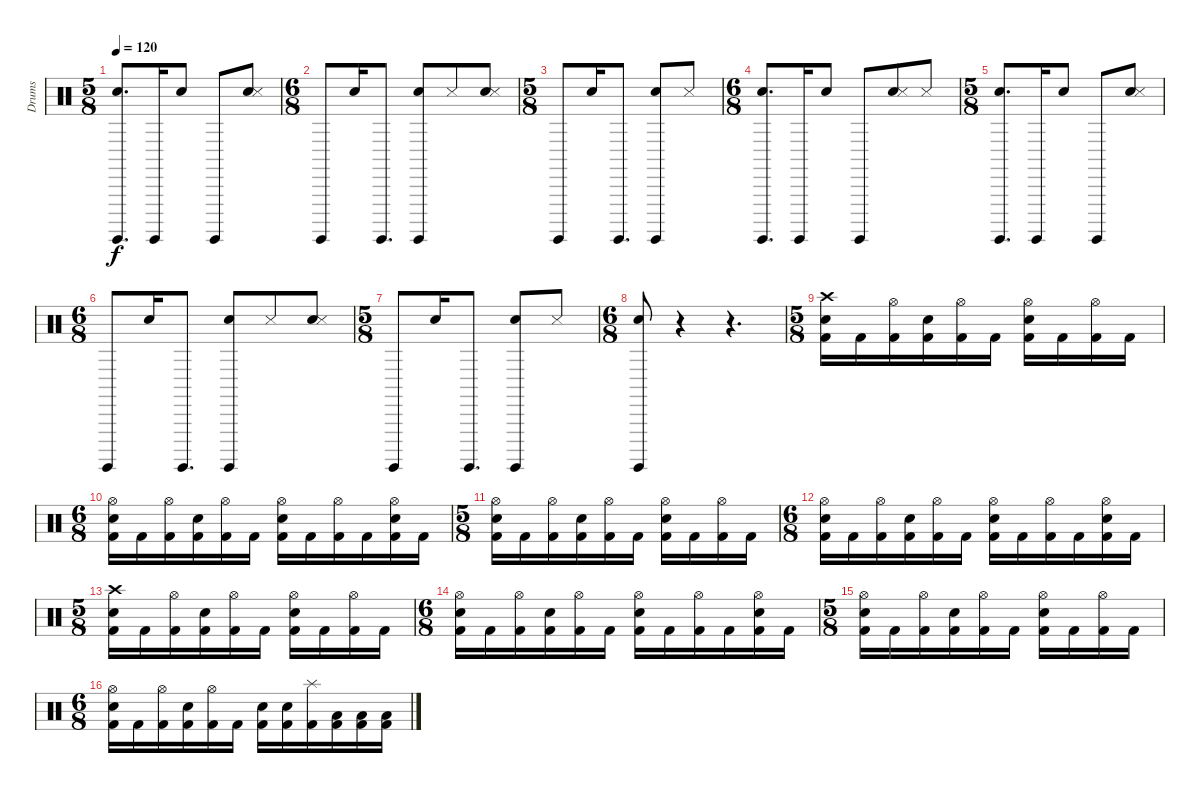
\track ("Drums" "Drums") {instrument percussion}
\staff {score}
\articulation defaults
\ts (5 8)
\tempo 120
\clef neutral
\ks c
("Hand Clap (hit)" "Surdo (hit)").8{d dy f} "Surdo (hit)".16 "Hand Clap (hit)".8 "Surdo (hit)".8 ("Hand Clap (hit)" "Snare (side stick) 3").8 |
\ts (6 8)
"Surdo (hit)".8 "Hand Clap (hit)".16 "Surdo (hit)".8{d} ("Hand Clap (hit)" "Surdo (hit)").8 "Snare (side stick) 3".8 ("Hand Clap (hit)" "Snare (side stick) 3").8 |
\ts (5 8)
"Surdo (hit)".8 "Hand Clap (hit)".16 "Surdo (hit)".8{d} ("Hand Clap (hit)" "Surdo (hit)").8 "Snare (side stick) 3".8 |
\ts (6 8)
("Hand Clap (hit)" "Surdo (hit)").8{d} "Surdo (hit)".16 "Hand Clap (hit)".8 "Surdo (hit)".8 ("Hand Clap (hit)" "Snare (side stick) 3").8 "Snare (side stick) 3".8 |
\ts (5 8)
("Hand Clap (hit)" "Surdo (hit)").8{d} "Surdo (hit)".16 "Hand Clap (hit)".8 "Surdo (hit)".8 ("Hand Clap (hit)" "Snare (side stick) 3").8 |
\ts (6 8)
"Surdo (hit)".8 "Hand Clap (hit)".16 "Surdo (hit)".8{d} ("Hand Clap (hit)" "Surdo (hit)").8 "Snare (side stick) 3".8 ("Hand Clap (hit)" "Snare (side stick) 3").8 |
\ts (5 8)
"Surdo (hit)".8 "Hand Clap (hit)".16 "Surdo (hit)".8{d} ("Hand Clap (hit)" "Surdo (hit)").8 "Snare (side stick) 3".8 |
\ts (6 8)
("Hand Clap (hit)" "Surdo (hit)").8 r.4 r.4{d} |
\ts (5 8)
("Crash high (hit)" "Snare (hit) 2" "Kick (hit) 2").16 "Kick (hit) 2".16 ("Hi-Hat (open)" "Kick (hit) 2").16 ("Snare (hit) 2" "Kick (hit) 2").16 ("Hi-Hat (open)" "Kick (hit) 2").16 "Kick (hit) 2".16 ("Hi-Hat (open)" "Snare (hit) 2" "Kick (hit) 2").16 "Kick (hit) 2".16 ("Hi-Hat (open)" "Kick (hit) 2").16 "Kick (hit) 2".16 |
\ts (6 8)
("Hi-Hat (open)" "Snare (hit) 2" "Kick (hit) 2").16 "Kick (hit) 2".16 ("Hi-Hat (open)" "Kick (hit) 2").16 ("Snare (hit) 2" "Kick (hit) 2").16 ("Hi-Hat (open)" "Kick (hit) 2").16 "Kick (hit) 2".16 ("Hi-Hat (open)" "Snare (hit) 2" "Kick (hit) 2").16 "Kick (hit) 2".16 ("Hi-Hat (open)" "Kick (hit) 2").16 "Kick (hit) 2".16 ("Hi-Hat (open)" "Snare (hit) 2" "Kick (hit) 2").16 "Kick (hit) 2".16 |
\ts (5 8)
("Hi-Hat (open)" "Snare (hit) 2" "Kick (hit) 2").16 "Kick (hit) 2".16 ("Hi-Hat (open)" "Kick (hit) 2").16 ("Snare (hit) 2" "Kick (hit) 2").16 ("Hi-Hat (open)" "Kick (hit) 2").16 "Kick (hit) 2".16 ("Hi-Hat (open)" "Snare (hit) 2" "Kick (hit) 2").16 "Kick (hit) 2".16 ("Hi-Hat (open)" "Kick (hit) 2").16 "Kick (hit) 2".16 |
\ts (6 8)
("Hi-Hat (open)" "Snare (hit) 2" "Kick (hit) 2").16 "Kick (hit) 2".16 ("Hi-Hat (open)" "Kick (hit) 2").16 ("Snare (hit) 2" "Kick (hit) 2").16 ("Hi-Hat (open)" "Kick (hit) 2").16 "Kick (hit) 2".16 ("Hi-Hat (open)" "Snare (hit) 2" "Kick (hit) 2").16 "Kick (hit) 2".16 ("Hi-Hat (open)" "Kick (hit) 2").16 "Kick (hit) 2".16 ("Hi-Hat (open)" "Snare (hit) 2" "Kick (hit) 2").16 "Kick (hit) 2".16 |
\ts (5 8)
("Crash high (hit)" "Snare (hit) 2" "Kick (hit) 2").16 "Kick (hit) 2".16 ("Hi-Hat (open)" "Kick (hit) 2").16 ("Snare (hit) 2" "Kick (hit) 2").16 ("Hi-Hat (open)" "Kick (hit) 2").16 "Kick (hit) 2".16 ("Hi-Hat (open)" "Snare (hit) 2" "Kick (hit) 2").16 "Kick (hit) 2".16 ("Hi-Hat (open)" "Kick (hit) 2").16 "Kick (hit) 2".16 |
\ts (6 8)
("Hi-Hat (open)" "Snare (hit) 2" "Kick (hit) 2").16 "Kick (hit) 2".16 ("Hi-Hat (open)" "Kick (hit) 2").16 ("Snare (hit) 2" "Kick (hit) 2").16 ("Hi-Hat (open)" "Kick (hit) 2").16 "Kick (hit) 2".16 ("Hi-Hat (open)" "Snare (hit) 2" "Kick (hit) 2").16 "Kick (hit) 2".16 ("Hi-Hat (open)" "Kick (hit) 2").16 "Kick (hit) 2".16 ("Hi-Hat (open)" "Snare (hit) 2" "Kick (hit) 2").16 "Kick (hit) 2".16 |
\ts (5 8)
("Hi-Hat (open)" "Snare (hit) 2" "Kick (hit) 2").16 "Kick (hit) 2".16 ("Hi-Hat (open)" "Kick (hit) 2").16 ("Snare (hit) 2" "Kick (hit) 2").16 ("Hi-Hat (open)" "Kick (hit) 2").16 "Kick (hit) 2".16 ("Hi-Hat (open)" "Snare (hit) 2" "Kick (hit) 2").16 "Kick (hit) 2".16 ("Hi-Hat (open)" "Kick (hit) 2").16 "Kick (hit) 2".16 |
\ts (6 8)
("Hi-Hat (open)" "Snare (hit) 2" "Kick (hit) 2").16 "Kick (hit) 2".16 ("Hi-Hat (open)" "Kick (hit) 2").16 ("Snare (hit) 2" "Kick (hit) 2").16 ("Hi-Hat (open)" "Kick (hit) 2").16 "Kick (hit) 2".16 ("Snare (hit) 2" "Kick (hit) 2").16 ("Snare (hit) 2" "Kick (hit) 2").16 ("Splash (hit)" "Kick (hit) 2").16 ("Low Tom (hit)" "Kick (hit) 2").16 ("Low Tom (hit)" "Kick (hit) 2").16 ("Low Tom (hit)" "Kick (hit) 2").16
